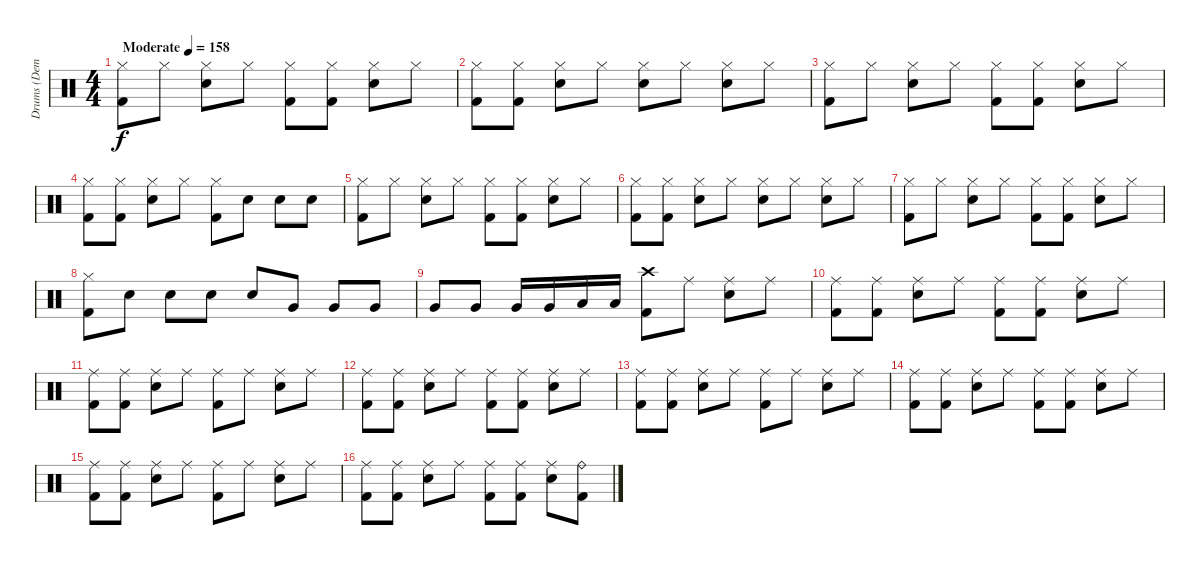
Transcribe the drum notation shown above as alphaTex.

\track ("Drums (Demetra)" "Drums (Dem") {instrument percussion}
\staff {score}
\articulation defaults
\ts (4 4)
\tempo (158 "Moderate")
\clef neutral
\ks c
("Hi-Hat (closed)" "Kick (hit) 2").8{dy f} "Hi-Hat (closed)".8 ("Hi-Hat (closed)" "Snare (hit) 2").8 "Hi-Hat (closed)".8 ("Hi-Hat (closed)" "Kick (hit) 2").8 ("Hi-Hat (closed)" "Kick (hit) 2").8 ("Hi-Hat (closed)" "Snare (hit) 2").8 "Hi-Hat (closed)".8 |
("Hi-Hat (closed)" "Kick (hit) 2").8 ("Hi-Hat (closed)" "Kick (hit) 2").8 ("Hi-Hat (closed)" "Snare (hit) 2").8 "Hi-Hat (closed)".8 ("Hi-Hat (closed)" "Snare (hit) 2").8 "Hi-Hat (closed)".8 ("Hi-Hat (closed)" "Snare (hit) 2").8 "Hi-Hat (closed)".8 |
("Hi-Hat (closed)" "Kick (hit) 2").8 "Hi-Hat (closed)".8 ("Hi-Hat (closed)" "Snare (hit) 2").8 "Hi-Hat (closed)".8 ("Hi-Hat (closed)" "Kick (hit) 2").8 ("Hi-Hat (closed)" "Kick (hit) 2").8 ("Hi-Hat (closed)" "Snare (hit) 2").8 "Hi-Hat (closed)".8 |
("Hi-Hat (closed)" "Kick (hit) 2").8 ("Hi-Hat (closed)" "Kick (hit) 2").8 ("Hi-Hat (closed)" "Snare (hit) 2").8 "Hi-Hat (closed)".8 ("Hi-Hat (closed)" "Kick (hit) 2").8 "Snare (hit) 2".8 "Snare (hit) 2".8 "Snare (hit) 2".8 |
("Hi-Hat (closed)" "Kick (hit) 2").8 "Hi-Hat (closed)".8 ("Hi-Hat (closed)" "Snare (hit) 2").8 "Hi-Hat (closed)".8 ("Hi-Hat (closed)" "Kick (hit) 2").8 ("Hi-Hat (closed)" "Kick (hit) 2").8 ("Hi-Hat (closed)" "Snare (hit) 2").8 "Hi-Hat (closed)".8 |
("Hi-Hat (closed)" "Kick (hit) 2").8 ("Hi-Hat (closed)" "Kick (hit) 2").8 ("Hi-Hat (closed)" "Snare (hit) 2").8 "Hi-Hat (closed)".8 ("Hi-Hat (closed)" "Snare (hit) 2").8 "Hi-Hat (closed)".8 ("Hi-Hat (closed)" "Snare (hit) 2").8 "Hi-Hat (closed)".8 |
("Hi-Hat (closed)" "Kick (hit) 2").8 "Hi-Hat (closed)".8 ("Hi-Hat (closed)" "Snare (hit) 2").8 "Hi-Hat (closed)".8 ("Hi-Hat (closed)" "Kick (hit) 2").8 ("Hi-Hat (closed)" "Kick (hit) 2").8 ("Hi-Hat (closed)" "Snare (hit) 2").8 "Hi-Hat (closed)".8 |
("Hi-Hat (closed)" "Kick (hit) 2").8 "Snare (hit) 2".8 "Snare (hit) 2".8 "Snare (hit) 2".8 "Snare (hit) 2".8 "Very Low Tom (hit)".8 "Very Low Tom (hit)".8 "Very Low Tom (hit)".8 |
"Very Low Tom (hit)".8 "Very Low Tom (hit)".8 "Very Low Tom (hit)".16 "Very Low Tom (hit)".16 "Low Floor Tom (hit)".16 "Low Floor Tom (hit)".16 ("Crash high (hit)" "Kick (hit) 2").8 "Ride (middle)".8 ("Ride (middle)" "Snare (hit) 2").8 "Ride (middle)".8 |
("Ride (middle)" "Kick (hit) 2").8 ("Ride (middle)" "Kick (hit) 2").8 ("Ride (middle)" "Snare (hit) 2").8 "Ride (middle)".8 ("Ride (middle)" "Kick (hit) 2").8 ("Ride (middle)" "Kick (hit) 2").8 ("Ride (middle)" "Snare (hit) 2").8 "Ride (middle)".8 |
("Ride (middle)" "Kick (hit) 2").8 ("Ride (middle)" "Kick (hit) 2").8 ("Ride (middle)" "Snare (hit) 2").8 "Ride (middle)".8 ("Ride (middle)" "Kick (hit) 2").8 "Ride (middle)".8 ("Ride (middle)" "Snare (hit) 2").8 "Ride (middle)".8 |
("Ride (middle)" "Kick (hit) 2").8 ("Ride (middle)" "Kick (hit) 2").8 ("Ride (middle)" "Snare (hit) 2").8 "Ride (middle)".8 ("Ride (middle)" "Kick (hit) 2").8 ("Ride (middle)" "Kick (hit) 2").8 ("Ride (middle)" "Snare (hit) 2").8 "Ride (middle)".8 |
("Ride (middle)" "Kick (hit) 2").8 ("Ride (middle)" "Kick (hit) 2").8 ("Ride (middle)" "Snare (hit) 2").8 "Ride (middle)".8 ("Ride (middle)" "Kick (hit) 2").8 "Ride (middle)".8 ("Ride (middle)" "Snare (hit) 2").8 "Ride (middle)".8 |
("Ride (middle)" "Kick (hit) 2").8 ("Ride (middle)" "Kick (hit) 2").8 ("Ride (middle)" "Snare (hit) 2").8 "Ride (middle)".8 ("Ride (middle)" "Kick (hit) 2").8 ("Ride (middle)" "Kick (hit) 2").8 ("Ride (middle)" "Snare (hit) 2").8 "Ride (middle)".8 |
("Ride (middle)" "Kick (hit) 2").8 ("Ride (middle)" "Kick (hit) 2").8 ("Ride (middle)" "Snare (hit) 2").8 "Ride (middle)".8 ("Ride (middle)" "Kick (hit) 2").8 "Ride (middle)".8 ("Ride (middle)" "Snare (hit) 2").8 "Ride (middle)".8 |
("Ride (middle)" "Kick (hit) 2").8 ("Ride (middle)" "Kick (hit) 2").8 ("Ride (middle)" "Snare (hit) 2").8 "Ride (middle)".8 ("Ride (middle)" "Kick (hit) 2").8 ("Ride (middle)" "Kick (hit) 2").8 ("Ride (middle)" "Snare (hit) 2").8 ("Ride (bell)" "Kick (hit) 2").8
